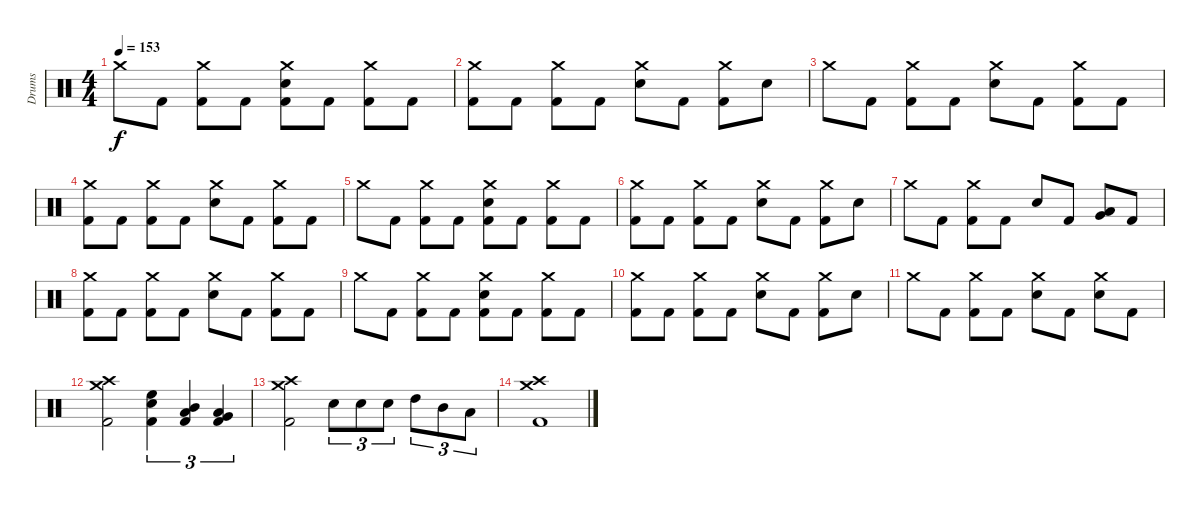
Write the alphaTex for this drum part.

\track ("Drums" "Drums") {instrument percussion}
\staff {score}
\articulation defaults
\ts (4 4)
\tempo 153
\clef neutral
\ks c "Crash medium (hit)".8{dy f} "Kick (hit) 2".8
("Crash medium (hit)" "Kick (hit) 2").8 "Kick (hit) 2".8 ("Crash medium (hit)" "Snare (hit) 2" "Kick (hit) 2").8 "Kick (hit) 2".8 ("Crash medium (hit)" "Kick (hit) 2").8 "Kick (hit) 2".8 |
("Crash medium (hit)" "Kick (hit) 2").8 "Kick (hit) 2".8 ("Crash medium (hit)" "Kick (hit) 2").8 "Kick (hit) 2".8 ("Crash medium (hit)" "Snare (hit) 2").8 "Kick (hit) 2".8 ("Crash medium (hit)" "Kick (hit) 2").8 "Snare (hit) 2".8 |
"Crash medium (hit)".8 "Kick (hit) 2".8 ("Crash medium (hit)" "Kick (hit) 2").8 "Kick (hit) 2".8 ("Crash medium (hit)" "Snare (hit) 2").8 "Kick (hit) 2".8 ("Crash medium (hit)" "Kick (hit) 2").8 "Kick (hit) 2".8 |
("Crash medium (hit)" "Kick (hit) 2").8 "Kick (hit) 2".8 ("Crash medium (hit)" "Kick (hit) 2").8 "Kick (hit) 2".8 ("Crash medium (hit)" "Snare (hit) 2").8 "Kick (hit) 2".8 ("Crash medium (hit)" "Kick (hit) 2").8 "Kick (hit) 2".8 |
"Crash medium (hit)".8 "Kick (hit) 2".8 ("Crash medium (hit)" "Kick (hit) 2").8 "Kick (hit) 2".8 ("Crash medium (hit)" "Snare (hit) 2" "Kick (hit) 2").8 "Kick (hit) 2".8 ("Crash medium (hit)" "Kick (hit) 2").8 "Kick (hit) 2".8 |
("Crash medium (hit)" "Kick (hit) 2").8 "Kick (hit) 2".8 ("Crash medium (hit)" "Kick (hit) 2").8 "Kick (hit) 2".8 ("Crash medium (hit)" "Snare (hit) 2").8 "Kick (hit) 2".8 ("Crash medium (hit)" "Kick (hit) 2").8 "Snare (hit) 2".8 |
"Crash medium (hit)".8 "Kick (hit) 2".8 ("Crash medium (hit)" "Kick (hit) 2").8 "Kick (hit) 2".8 "Snare (hit) 2".8 "Kick (hit) 2".8 ("Low Tom (hit)" "Very Low Tom (hit)").8 "Kick (hit) 2".8 |
("Crash medium (hit)" "Kick (hit) 2").8 "Kick (hit) 2".8 ("Crash medium (hit)" "Kick (hit) 2").8 "Kick (hit) 2".8 ("Crash medium (hit)" "Snare (hit) 2").8 "Kick (hit) 2".8 ("Crash medium (hit)" "Kick (hit) 2").8 "Kick (hit) 2".8 |
"Crash medium (hit)".8 "Kick (hit) 2".8 ("Crash medium (hit)" "Kick (hit) 2").8 "Kick (hit) 2".8 ("Crash medium (hit)" "Snare (hit) 2" "Kick (hit) 2").8 "Kick (hit) 2".8 ("Crash medium (hit)" "Kick (hit) 2").8 "Kick (hit) 2".8 |
("Crash medium (hit)" "Kick (hit) 2").8 "Kick (hit) 2".8 ("Crash medium (hit)" "Kick (hit) 2").8 "Kick (hit) 2".8 ("Crash medium (hit)" "Snare (hit) 2").8 "Kick (hit) 2".8 ("Crash medium (hit)" "Kick (hit) 2").8 "Snare (hit) 2".8 |
"Crash medium (hit)".8 "Kick (hit) 2".8 ("Crash medium (hit)" "Kick (hit) 2").8 "Kick (hit) 2".8 ("Crash medium (hit)" "Snare (hit) 2").8 "Kick (hit) 2".8 ("Crash medium (hit)" "Snare (hit) 2").8 "Kick (hit) 2".8 |
("Crash medium (hit)" "Crash high (hit)" "Kick (hit) 2").2 ("High Floor Tom (hit)" "Snare (hit) 2" "Kick (hit) 2").4{tu (3 2)} ("Mid Tom (hit)" "Low Tom (hit)" "Kick (hit) 2").4{tu (3 2)} ("Very Low Tom (hit)" "Low Floor Tom (hit)" "Kick (hit) 2").4{tu (3 2)} |
("Crash medium (hit)" "Crash high (hit)" "Kick (hit) 2").2 "Snare (hit) 2".8{tu (3 2)} "Snare (hit) 2".8{tu (3 2)} "Snare (hit) 2".8{tu (3 2)} "High Tom (hit)".8{tu (3 2)} "Mid Tom (hit)".8{tu (3 2)} "Low Tom (hit)".8{tu (3 2)} |
("Crash medium (hit)" "Crash high (hit)" "Kick (hit) 2").1
